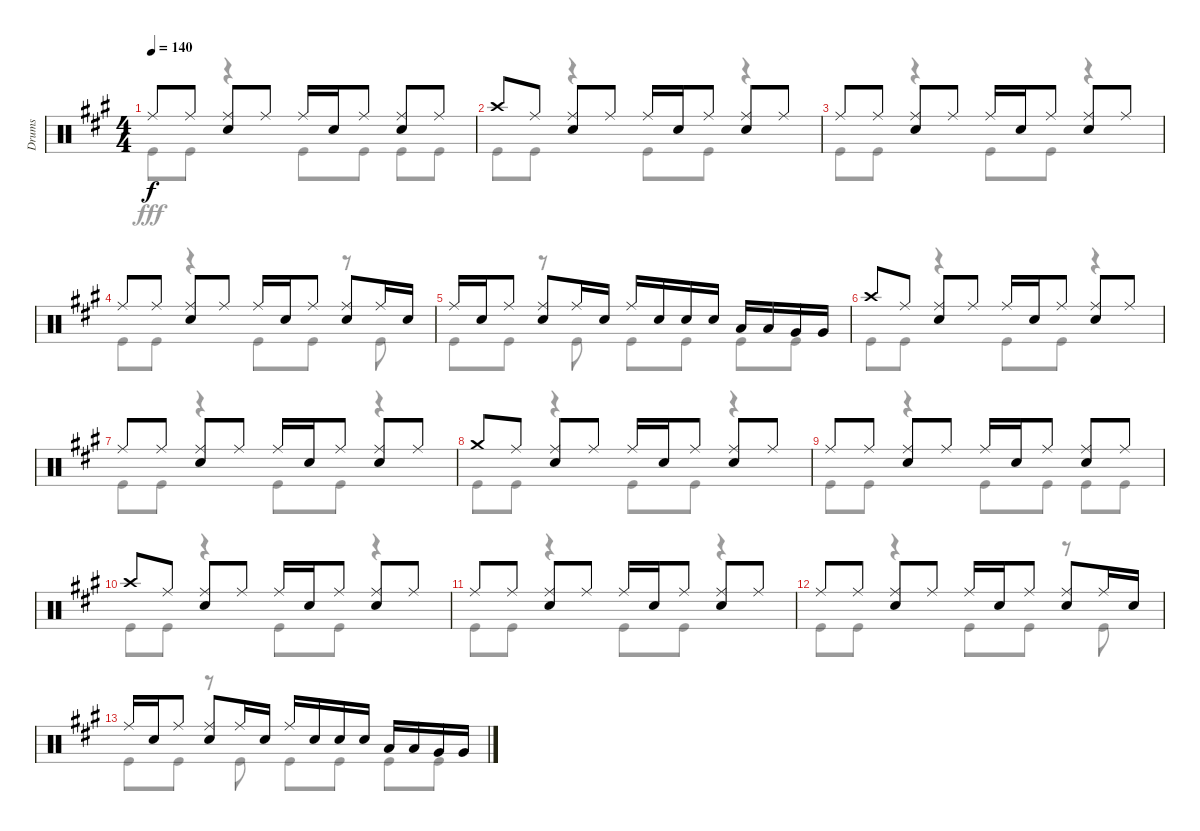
\track ("Drums" "Drums") {instrument percussion}
\staff {score}
\articulation defaults
\voice
\ts (4 4)
\tempo 140
\clef neutral
\ks a "Ride (middle)".8{dy f} "Ride (middle)".8
("Ride (middle)" "Snare (hit) 2").8 "Ride (middle)".8 "Ride (middle)".16 "Snare (hit) 2".16 "Ride (middle)".8 ("Ride (middle)" "Snare (hit) 2").8 "Ride (middle)".8 |
"Crash high (hit)".8 "Ride (middle)".8 ("Ride (middle)" "Snare (hit) 2").8 "Ride (middle)".8 "Ride (middle)".16 "Snare (hit) 2".16 "Ride (middle)".8 ("Ride (middle)" "Snare (hit) 2").8 "Ride (middle)".8 |
"Ride (middle)".8 "Ride (middle)".8 ("Ride (middle)" "Snare (hit) 2").8 "Ride (middle)".8 "Ride (middle)".16 "Snare (hit) 2".16 "Ride (middle)".8 ("Ride (middle)" "Snare (hit) 2").8 "Ride (middle)".8 |
"Ride (middle)".8 "Ride (middle)".8 ("Ride (middle)" "Snare (hit) 2").8 "Ride (middle)".8 "Ride (middle)".16 "Snare (hit) 2".16 "Ride (middle)".8 ("Ride (middle)" "Snare (hit) 2").8 "Ride (middle)".16 "Snare (hit) 2".16 |
"Ride (middle)".16 "Snare (hit) 2".16 "Ride (middle)".8 ("Ride (middle)" "Snare (hit) 2").8 "Ride (middle)".16 "Snare (hit) 2".16 "Ride (middle)".16 "Snare (hit) 2".16 "Snare (hit) 2".16 "Snare (hit) 2".16 "Low Tom (hit)".16 "Low Tom (hit)".16 "Very Low Tom (hit)".16 "Very Low Tom (hit)".16 |
"Crash high (hit)".8 "Ride (middle)".8 ("Ride (middle)" "Snare (hit) 2").8 "Ride (middle)".8 "Ride (middle)".16 "Snare (hit) 2".16 "Ride (middle)".8 ("Ride (middle)" "Snare (hit) 2").8 "Ride (middle)".8 |
"Ride (middle)".8 "Ride (middle)".8 ("Ride (middle)" "Snare (hit) 2").8 "Ride (middle)".8 "Ride (middle)".16 "Snare (hit) 2".16 "Ride (middle)".8 ("Ride (middle)" "Snare (hit) 2").8 "Ride (middle)".8 |
"Crash medium (hit)".8 "Ride (middle)".8 ("Ride (middle)" "Snare (hit) 2").8 "Ride (middle)".8 "Ride (middle)".16 "Snare (hit) 2".16 "Ride (middle)".8 ("Ride (middle)" "Snare (hit) 2").8 "Ride (middle)".8 |
"Ride (middle)".8 "Ride (middle)".8 ("Ride (middle)" "Snare (hit) 2").8 "Ride (middle)".8 "Ride (middle)".16 "Snare (hit) 2".16 "Ride (middle)".8 ("Ride (middle)" "Snare (hit) 2").8 "Ride (middle)".8 |
"Crash high (hit)".8 "Ride (middle)".8 ("Ride (middle)" "Snare (hit) 2").8 "Ride (middle)".8 "Ride (middle)".16 "Snare (hit) 2".16 "Ride (middle)".8 ("Ride (middle)" "Snare (hit) 2").8 "Ride (middle)".8 |
"Ride (middle)".8 "Ride (middle)".8 ("Ride (middle)" "Snare (hit) 2").8 "Ride (middle)".8 "Ride (middle)".16 "Snare (hit) 2".16 "Ride (middle)".8 ("Ride (middle)" "Snare (hit) 2").8 "Ride (middle)".8 |
"Ride (middle)".8 "Ride (middle)".8 ("Ride (middle)" "Snare (hit) 2").8 "Ride (middle)".8 "Ride (middle)".16 "Snare (hit) 2".16 "Ride (middle)".8 ("Ride (middle)" "Snare (hit) 2").8 "Ride (middle)".16 "Snare (hit) 2".16 |
"Ride (middle)".16 "Snare (hit) 2".16 "Ride (middle)".8 ("Ride (middle)" "Snare (hit) 2").8 "Ride (middle)".16 "Snare (hit) 2".16 "Ride (middle)".16 "Snare (hit) 2".16 "Snare (hit) 2".16 "Snare (hit) 2".16 "Low Tom (hit)".16 "Low Tom (hit)".16 "Very Low Tom (hit)".16 "Very Low Tom (hit)".16
\voice
\clef neutral
\ottava regular
\simile none
\ks a "Kick (hit)".8{dy fff} "Kick (hit)".8
r.4 "Kick (hit)".8 "Kick (hit)".8 "Kick (hit)".8 "Kick (hit)".8 |
"Kick (hit)".8 "Kick (hit)".8 r.4 "Kick (hit)".8 "Kick (hit)".8 r.4 |
"Kick (hit)".8 "Kick (hit)".8 r.4 "Kick (hit)".8 "Kick (hit)".8 r.4 |
"Kick (hit)".8 "Kick (hit)".8 r.4 "Kick (hit)".8 "Kick (hit)".8 r.8 "Kick (hit)".8 |
"Kick (hit)".8 "Kick (hit)".8 r.8 "Kick (hit)".8 "Kick (hit)".8 "Kick (hit)".8 "Kick (hit)".8 "Kick (hit)".8 |
"Kick (hit)".8 "Kick (hit)".8 r.4 "Kick (hit)".8 "Kick (hit)".8 r.4 |
"Kick (hit)".8 "Kick (hit)".8 r.4 "Kick (hit)".8 "Kick (hit)".8 r.4 |
"Kick (hit)".8 "Kick (hit)".8 r.4 "Kick (hit)".8 "Kick (hit)".8 r.4 |
"Kick (hit)".8 "Kick (hit)".8 r.4 "Kick (hit)".8 "Kick (hit)".8 "Kick (hit)".8 "Kick (hit)".8 |
"Kick (hit)".8 "Kick (hit)".8 r.4 "Kick (hit)".8 "Kick (hit)".8 r.4 |
"Kick (hit)".8 "Kick (hit)".8 r.4 "Kick (hit)".8 "Kick (hit)".8 r.4 |
"Kick (hit)".8 "Kick (hit)".8 r.4 "Kick (hit)".8 "Kick (hit)".8 r.8 "Kick (hit)".8 |
"Kick (hit)".8 "Kick (hit)".8 r.8 "Kick (hit)".8 "Kick (hit)".8 "Kick (hit)".8 "Kick (hit)".8 "Kick (hit)".8
